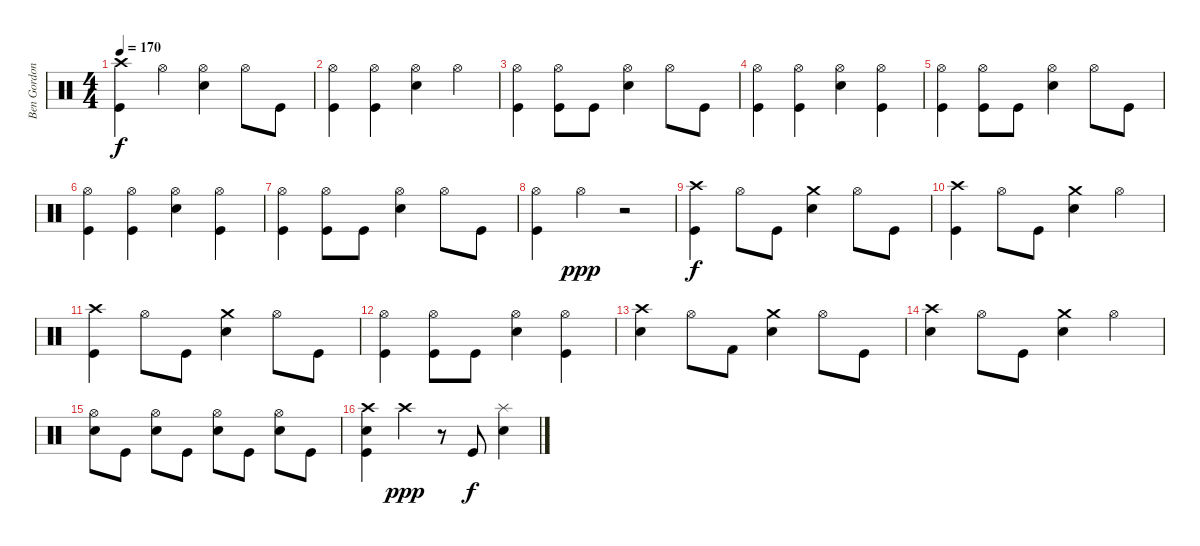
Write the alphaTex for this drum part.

\track ("Ben Gordon" "Ben Gordon") {instrument percussion}
\staff {score}
\articulation defaults
\ts (4 4)
\tempo 170
\clef neutral
\ks c
("Crash high (hit)" "Kick (hit)").4{dy f} "Hi-Hat (open)".4 ("Hi-Hat (open)" "Electric Snare (hit)").4 "Hi-Hat (open)".8 "Kick (hit)".8 |
("Hi-Hat (open)" "Kick (hit)").4 ("Hi-Hat (open)" "Kick (hit)").4 ("Hi-Hat (open)" "Electric Snare (hit)").4 "Hi-Hat (open)".4 |
("Hi-Hat (open)" "Kick (hit)").4 ("Hi-Hat (open)" "Kick (hit)").8 "Kick (hit)".8 ("Hi-Hat (open)" "Electric Snare (hit)").4 "Hi-Hat (open)".8 "Kick (hit)".8 |
("Hi-Hat (open)" "Kick (hit)").4 ("Hi-Hat (open)" "Kick (hit)").4 ("Hi-Hat (open)" "Electric Snare (hit)").4 ("Hi-Hat (open)" "Kick (hit)").4 |
("Hi-Hat (open)" "Kick (hit)").4 ("Hi-Hat (open)" "Kick (hit)").8 "Kick (hit)".8 ("Hi-Hat (open)" "Electric Snare (hit)").4 "Hi-Hat (open)".8 "Kick (hit)".8 |
("Hi-Hat (open)" "Kick (hit)").4 ("Hi-Hat (open)" "Kick (hit)").4 ("Hi-Hat (open)" "Electric Snare (hit)").4 ("Hi-Hat (open)" "Kick (hit)").4 |
("Hi-Hat (open)" "Kick (hit)").4 ("Hi-Hat (open)" "Kick (hit)").8 "Kick (hit)".8 ("Hi-Hat (open)" "Electric Snare (hit)").4 "Hi-Hat (open)".8 "Kick (hit)".8 |
("Hi-Hat (open)" "Kick (hit)").4 "Hi-Hat (open)".4{dy ppp} r.2 |
("Crash high (hit)" "Kick (hit)").4{dy f} "Hi-Hat (open)".8 "Kick (hit)".8 ("Crash medium (hit)" "Electric Snare (hit)").4 "Hi-Hat (open)".8 "Kick (hit)".8 |
("Crash high (hit)" "Kick (hit)").4 "Hi-Hat (open)".8 "Kick (hit)".8 ("Crash medium (hit)" "Electric Snare (hit)").4 "Hi-Hat (open)".4 |
("Crash high (hit)" "Kick (hit)").4 "Hi-Hat (open)".8 "Kick (hit)".8 ("Crash medium (hit)" "Electric Snare (hit)").4 "Hi-Hat (open)".8 "Kick (hit)".8 |
("Hi-Hat (open)" "Kick (hit)").4 ("Hi-Hat (open)" "Kick (hit)").8 "Kick (hit)".8 ("Hi-Hat (open)" "Electric Snare (hit)").4 ("Hi-Hat (open)" "Kick (hit)").4 |
("Crash high (hit)" "Electric Snare (hit)").4 "Hi-Hat (open)".8 "Kick (hit) 2".8 ("Crash medium (hit)" "Electric Snare (hit)").4 "Hi-Hat (open)".8 "Kick (hit)".8 |
("Crash high (hit)" "Electric Snare (hit)").4 "Hi-Hat (open)".8 "Kick (hit)".8 ("Crash medium (hit)" "Electric Snare (hit)").4 "Hi-Hat (open)".4 |
("Hi-Hat (open)" "Electric Snare (hit)").8 "Kick (hit)".8 ("Hi-Hat (open)" "Electric Snare (hit)").8 "Kick (hit)".8 ("Hi-Hat (open)" "Electric Snare (hit)").8 "Kick (hit)".8 ("Hi-Hat (open)" "Electric Snare (hit)").8 "Kick (hit)".8 |
("Crash high (hit)" "Electric Snare (hit)" "Kick (hit)").4 "Crash high (hit)".4{dy ppp} r.8 "Kick (hit)".8{dy f} ("Splash (hit)" "Electric Snare (hit)").4
